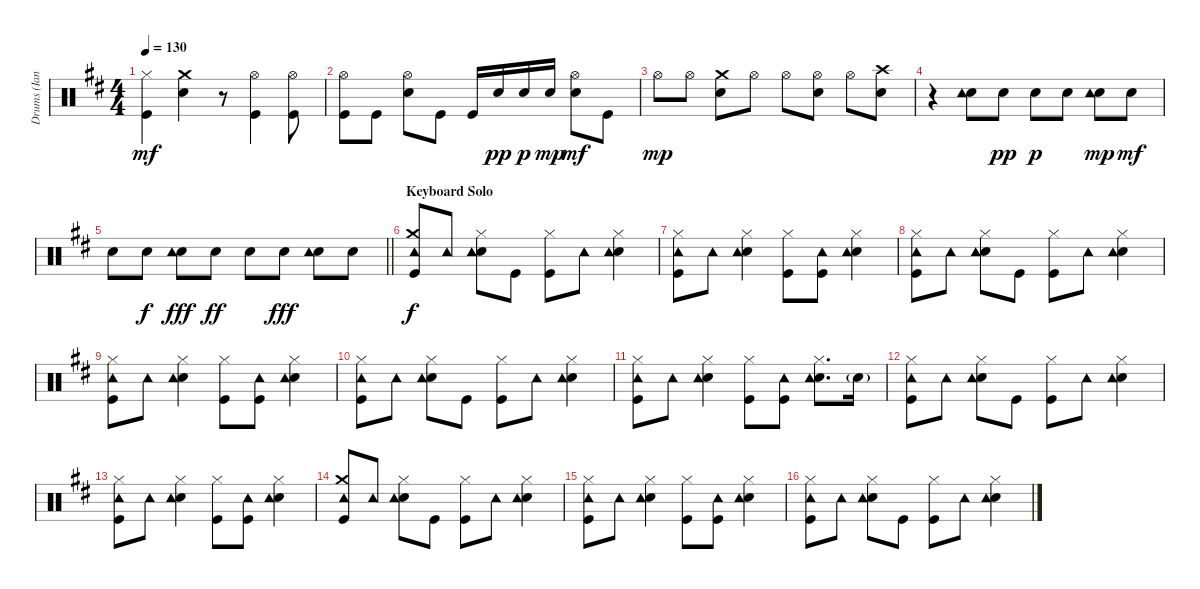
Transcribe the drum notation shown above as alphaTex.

\track ("Drums (Ian Paice)" "Drums (Ian") {instrument percussion}
\staff {score}
\articulation defaults
\ts (4 4)
\tempo 130
\clef neutral
\ks bminor
("Hi-Hat (closed)" "Kick (hit)").4{dy mf} ("Crash medium (hit)" "Electric Snare (hit)").4 r.8 ("Hi-Hat (open)" "Kick (hit)").4 ("Hi-Hat (open)" "Kick (hit)").8 |
("Hi-Hat (open)" "Kick (hit)").8 "Kick (hit)".8 ("Hi-Hat (open)" "Electric Snare (hit)").8 "Kick (hit)".8 "Kick (hit)".16 "Electric Snare (hit)".16{dy pp} "Electric Snare (hit)".16{dy p} "Electric Snare (hit)".16{dy mp} ("Hi-Hat (open)" "Electric Snare (hit)").8{dy mf} "Kick (hit)".8 |
"Hi-Hat (open)".8{dy mp} "Hi-Hat (open)".8 ("Crash medium (hit)" "Electric Snare (hit)").8 "Hi-Hat (open)".8 "Hi-Hat (open)".8 ("Hi-Hat (open)" "Electric Snare (hit)").8 "Hi-Hat (open)".8 ("Crash high (hit)" "Electric Snare (hit)").8 |
r.4 ("Electric Snare (hit)" "Tambourine (hit)").8 "Electric Snare (hit)".8{dy pp} "Electric Snare (hit)".8{dy p} "Electric Snare (hit)".8 ("Electric Snare (hit)" "Tambourine (hit)").8{dy mp} "Electric Snare (hit)".8{dy mf} |
\barLineRight lightlight "Electric Snare (hit)".8 "Electric Snare (hit)".8{dy f}
("Electric Snare (hit)" "Tambourine (hit)").8{dy fff} "Electric Snare (hit)".8{dy ff} "Electric Snare (hit)".8 "Electric Snare (hit)".8{dy fff} ("Electric Snare (hit)" "Tambourine (hit)").8 "Electric Snare (hit)".8 |
\section ("" "Keyboard Solo ")
("Crash medium (hit)" "Tambourine (hit)" "Kick (hit)").8{dy f} "Tambourine (hit)".8 ("Hi-Hat (closed)" "Electric Snare (hit)" "Tambourine (hit)").8 "Kick (hit)".8 ("Hi-Hat (closed)" "Kick (hit)").8 "Tambourine (hit)".8 ("Hi-Hat (closed)" "Electric Snare (hit)" "Tambourine (hit)").4 |
("Hi-Hat (closed)" "Tambourine (hit)" "Kick (hit)").8 "Tambourine (hit)".8 ("Hi-Hat (closed)" "Electric Snare (hit)" "Tambourine (hit)").4 ("Hi-Hat (closed)" "Kick (hit)").8 ("Tambourine (hit)" "Kick (hit)").8 ("Hi-Hat (closed)" "Electric Snare (hit)" "Tambourine (hit)").4 |
("Hi-Hat (closed)" "Tambourine (hit)" "Kick (hit)").8 "Tambourine (hit)".8 ("Hi-Hat (closed)" "Electric Snare (hit)" "Tambourine (hit)").8 "Kick (hit)".8 ("Hi-Hat (closed)" "Kick (hit)").8 "Tambourine (hit)".8 ("Hi-Hat (closed)" "Electric Snare (hit)" "Tambourine (hit)").4 |
("Hi-Hat (closed)" "Tambourine (hit)" "Kick (hit)").8 "Tambourine (hit)".8 ("Hi-Hat (closed)" "Electric Snare (hit)" "Tambourine (hit)").4 ("Hi-Hat (closed)" "Kick (hit)").8 ("Tambourine (hit)" "Kick (hit)").8 ("Hi-Hat (closed)" "Electric Snare (hit)" "Tambourine (hit)").4 |
("Hi-Hat (closed)" "Tambourine (hit)" "Kick (hit)").8 "Tambourine (hit)".8 ("Hi-Hat (closed)" "Electric Snare (hit)" "Tambourine (hit)").8 "Kick (hit)".8 ("Hi-Hat (closed)" "Kick (hit)").8 "Tambourine (hit)".8 ("Hi-Hat (closed)" "Electric Snare (hit)" "Tambourine (hit)").4 |
("Hi-Hat (closed)" "Tambourine (hit)" "Kick (hit)").8 "Tambourine (hit)".8 ("Hi-Hat (closed)" "Electric Snare (hit)" "Tambourine (hit)").4 ("Hi-Hat (closed)" "Kick (hit)").8 ("Tambourine (hit)" "Kick (hit)").8 ("Hi-Hat (closed)" "Electric Snare (hit)" "Tambourine (hit)").8{d} "Electric Snare (hit)"{g}.16 |
("Hi-Hat (closed)" "Tambourine (hit)" "Kick (hit)").8 "Tambourine (hit)".8 ("Hi-Hat (closed)" "Electric Snare (hit)" "Tambourine (hit)").8 "Kick (hit)".8 ("Hi-Hat (closed)" "Kick (hit)").8 "Tambourine (hit)".8 ("Hi-Hat (closed)" "Electric Snare (hit)" "Tambourine (hit)").4 |
("Hi-Hat (closed)" "Tambourine (hit)" "Kick (hit)").8 "Tambourine (hit)".8 ("Hi-Hat (closed)" "Electric Snare (hit)" "Tambourine (hit)").4 ("Hi-Hat (closed)" "Kick (hit)").8 ("Tambourine (hit)" "Kick (hit)").8 ("Hi-Hat (closed)" "Electric Snare (hit)" "Tambourine (hit)").4 |
("Crash medium (hit)" "Tambourine (hit)" "Kick (hit)").8 "Tambourine (hit)".8 ("Hi-Hat (closed)" "Electric Snare (hit)" "Tambourine (hit)").8 "Kick (hit)".8 ("Hi-Hat (closed)" "Kick (hit)").8 "Tambourine (hit)".8 ("Hi-Hat (closed)" "Electric Snare (hit)" "Tambourine (hit)").4 |
("Hi-Hat (closed)" "Tambourine (hit)" "Kick (hit)").8 "Tambourine (hit)".8 ("Hi-Hat (closed)" "Electric Snare (hit)" "Tambourine (hit)").4 ("Hi-Hat (closed)" "Kick (hit)").8 ("Tambourine (hit)" "Kick (hit)").8 ("Hi-Hat (closed)" "Electric Snare (hit)" "Tambourine (hit)").4 |
("Hi-Hat (closed)" "Tambourine (hit)" "Kick (hit)").8 "Tambourine (hit)".8 ("Hi-Hat (closed)" "Electric Snare (hit)" "Tambourine (hit)").8 "Kick (hit)".8 ("Hi-Hat (closed)" "Kick (hit)").8 "Tambourine (hit)".8 ("Hi-Hat (closed)" "Electric Snare (hit)" "Tambourine (hit)").4
